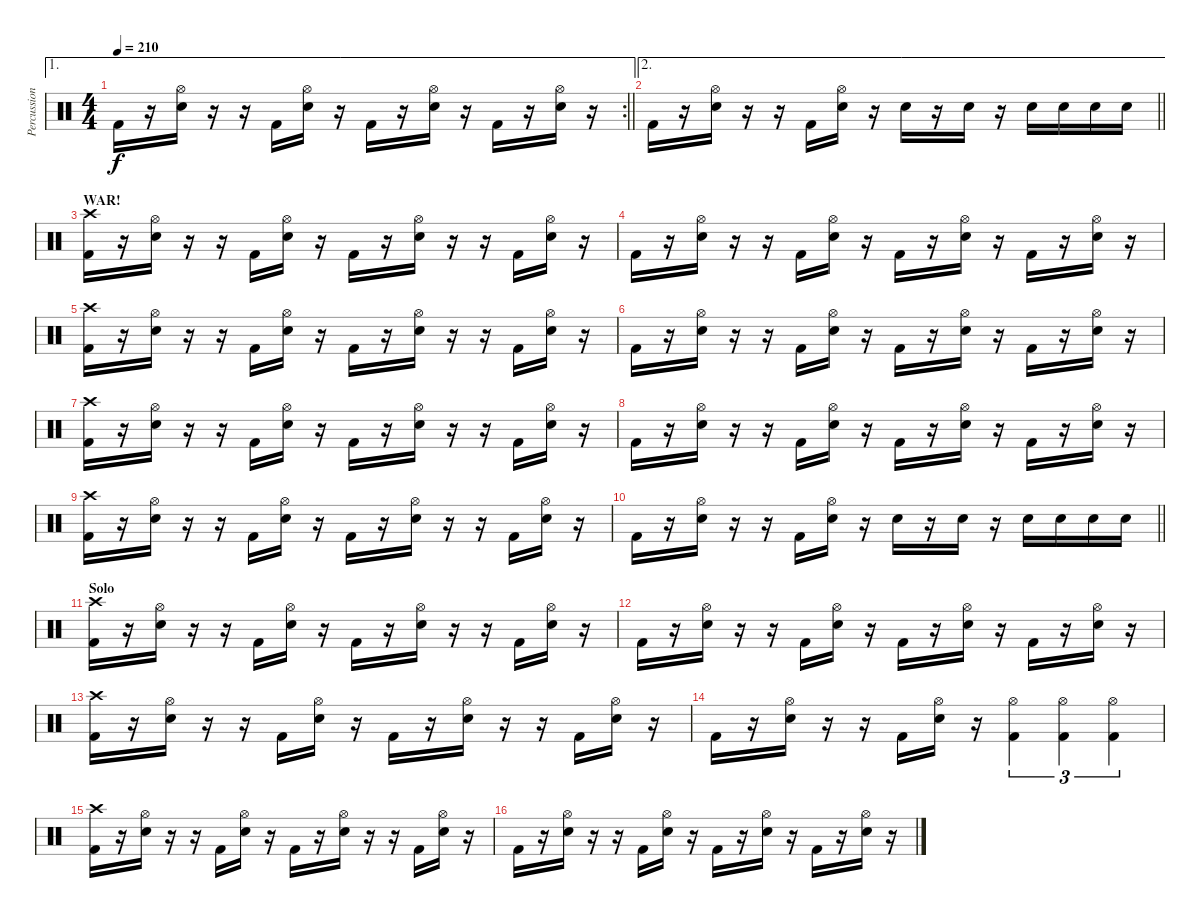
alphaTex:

\track ("Percussions" "Percussion") {instrument percussion}
\staff {score}
\articulation defaults
\ae 1
\rc 2
\ts (4 4)
\tempo 210
\clef neutral
\barLineRight lightlight
\ks c "Kick (hit) 2".16{dy f}
r.16 ("Hi-Hat (open)" "Snare (hit) 2").16 r.16 r.16 "Kick (hit) 2".16 ("Hi-Hat (open)" "Snare (hit) 2").16 r.16 "Kick (hit) 2".16 r.16 ("Hi-Hat (open)" "Snare (hit) 2").16 r.16 "Kick (hit) 2".16 r.16 ("Hi-Hat (open)" "Snare (hit) 2").16 r.16 |
\ae 2
\barLineRight lightlight "Kick (hit) 2".16
r.16 ("Hi-Hat (open)" "Snare (hit) 2").16 r.16 r.16 "Kick (hit) 2".16 ("Hi-Hat (open)" "Snare (hit) 2").16 r.16 "Snare (hit) 2".16 r.16 "Snare (hit) 2".16 r.16 "Snare (hit) 2".16 "Snare (hit) 2".16 "Snare (hit) 2".16 "Snare (hit) 2".16 |
\section ("" "WAR!")
("Crash high (hit)" "Kick (hit) 2").16 r.16 ("Hi-Hat (open)" "Snare (hit) 2").16 r.16 r.16 "Kick (hit) 2".16 ("Hi-Hat (open)" "Snare (hit) 2").16 r.16 "Kick (hit) 2".16 r.16 ("Hi-Hat (open)" "Snare (hit) 2").16 r.16 r.16 "Kick (hit) 2".16 ("Hi-Hat (open)" "Snare (hit) 2").16 r.16 |
"Kick (hit) 2".16 r.16 ("Hi-Hat (open)" "Snare (hit) 2").16 r.16 r.16 "Kick (hit) 2".16 ("Hi-Hat (open)" "Snare (hit) 2").16 r.16 "Kick (hit) 2".16 r.16 ("Hi-Hat (open)" "Snare (hit) 2").16 r.16 "Kick (hit) 2".16 r.16 ("Hi-Hat (open)" "Snare (hit) 2").16 r.16 |
("Crash high (hit)" "Kick (hit) 2").16 r.16 ("Hi-Hat (open)" "Snare (hit) 2").16 r.16 r.16 "Kick (hit) 2".16 ("Hi-Hat (open)" "Snare (hit) 2").16 r.16 "Kick (hit) 2".16 r.16 ("Hi-Hat (open)" "Snare (hit) 2").16 r.16 r.16 "Kick (hit) 2".16 ("Hi-Hat (open)" "Snare (hit) 2").16 r.16 |
"Kick (hit) 2".16 r.16 ("Hi-Hat (open)" "Snare (hit) 2").16 r.16 r.16 "Kick (hit) 2".16 ("Hi-Hat (open)" "Snare (hit) 2").16 r.16 "Kick (hit) 2".16 r.16 ("Hi-Hat (open)" "Snare (hit) 2").16 r.16 "Kick (hit) 2".16 r.16 ("Hi-Hat (open)" "Snare (hit) 2").16 r.16 |
("Crash high (hit)" "Kick (hit) 2").16 r.16 ("Hi-Hat (open)" "Snare (hit) 2").16 r.16 r.16 "Kick (hit) 2".16 ("Hi-Hat (open)" "Snare (hit) 2").16 r.16 "Kick (hit) 2".16 r.16 ("Hi-Hat (open)" "Snare (hit) 2").16 r.16 r.16 "Kick (hit) 2".16 ("Hi-Hat (open)" "Snare (hit) 2").16 r.16 |
"Kick (hit) 2".16 r.16 ("Hi-Hat (open)" "Snare (hit) 2").16 r.16 r.16 "Kick (hit) 2".16 ("Hi-Hat (open)" "Snare (hit) 2").16 r.16 "Kick (hit) 2".16 r.16 ("Hi-Hat (open)" "Snare (hit) 2").16 r.16 "Kick (hit) 2".16 r.16 ("Hi-Hat (open)" "Snare (hit) 2").16 r.16 |
("Crash high (hit)" "Kick (hit) 2").16 r.16 ("Hi-Hat (open)" "Snare (hit) 2").16 r.16 r.16 "Kick (hit) 2".16 ("Hi-Hat (open)" "Snare (hit) 2").16 r.16 "Kick (hit) 2".16 r.16 ("Hi-Hat (open)" "Snare (hit) 2").16 r.16 r.16 "Kick (hit) 2".16 ("Hi-Hat (open)" "Snare (hit) 2").16 r.16 |
\barLineRight lightlight "Kick (hit) 2".16
r.16 ("Hi-Hat (open)" "Snare (hit) 2").16 r.16 r.16 "Kick (hit) 2".16 ("Hi-Hat (open)" "Snare (hit) 2").16 r.16 "Snare (hit) 2".16 r.16 "Snare (hit) 2".16 r.16 "Snare (hit) 2".16 "Snare (hit) 2".16 "Snare (hit) 2".16 "Snare (hit) 2".16 |
\section ("" "Solo")
("Crash high (hit)" "Kick (hit) 2").16 r.16 ("Hi-Hat (open)" "Snare (hit) 2").16 r.16 r.16 "Kick (hit) 2".16 ("Hi-Hat (open)" "Snare (hit) 2").16 r.16 "Kick (hit) 2".16 r.16 ("Hi-Hat (open)" "Snare (hit) 2").16 r.16 r.16 "Kick (hit) 2".16 ("Hi-Hat (open)" "Snare (hit) 2").16 r.16 |
"Kick (hit) 2".16 r.16 ("Hi-Hat (open)" "Snare (hit) 2").16 r.16 r.16 "Kick (hit) 2".16 ("Hi-Hat (open)" "Snare (hit) 2").16 r.16 "Kick (hit) 2".16 r.16 ("Hi-Hat (open)" "Snare (hit) 2").16 r.16 "Kick (hit) 2".16 r.16 ("Hi-Hat (open)" "Snare (hit) 2").16 r.16 |
("Crash high (hit)" "Kick (hit) 2").16 r.16 ("Hi-Hat (open)" "Snare (hit) 2").16 r.16 r.16 "Kick (hit) 2".16 ("Hi-Hat (open)" "Snare (hit) 2").16 r.16 "Kick (hit) 2".16 r.16 ("Hi-Hat (open)" "Snare (hit) 2").16 r.16 r.16 "Kick (hit) 2".16 ("Hi-Hat (open)" "Snare (hit) 2").16 r.16 |
"Kick (hit) 2".16 r.16 ("Hi-Hat (open)" "Snare (hit) 2").16 r.16 r.16 "Kick (hit) 2".16 ("Hi-Hat (open)" "Snare (hit) 2").16 r.16 ("Hi-Hat (open)" "Kick (hit) 2").4{tu (3 2)} ("Hi-Hat (open)" "Kick (hit) 2").4{tu (3 2)} ("Hi-Hat (open)" "Kick (hit) 2").4{tu (3 2)} |
("Crash high (hit)" "Kick (hit) 2").16 r.16 ("Hi-Hat (open)" "Snare (hit) 2").16 r.16 r.16 "Kick (hit) 2".16 ("Hi-Hat (open)" "Snare (hit) 2").16 r.16 "Kick (hit) 2".16 r.16 ("Hi-Hat (open)" "Snare (hit) 2").16 r.16 r.16 "Kick (hit) 2".16 ("Hi-Hat (open)" "Snare (hit) 2").16 r.16 |
"Kick (hit) 2".16 r.16 ("Hi-Hat (open)" "Snare (hit) 2").16 r.16 r.16 "Kick (hit) 2".16 ("Hi-Hat (open)" "Snare (hit) 2").16 r.16 "Kick (hit) 2".16 r.16 ("Hi-Hat (open)" "Snare (hit) 2").16 r.16 "Kick (hit) 2".16 r.16 ("Hi-Hat (open)" "Snare (hit) 2").16 r.16
